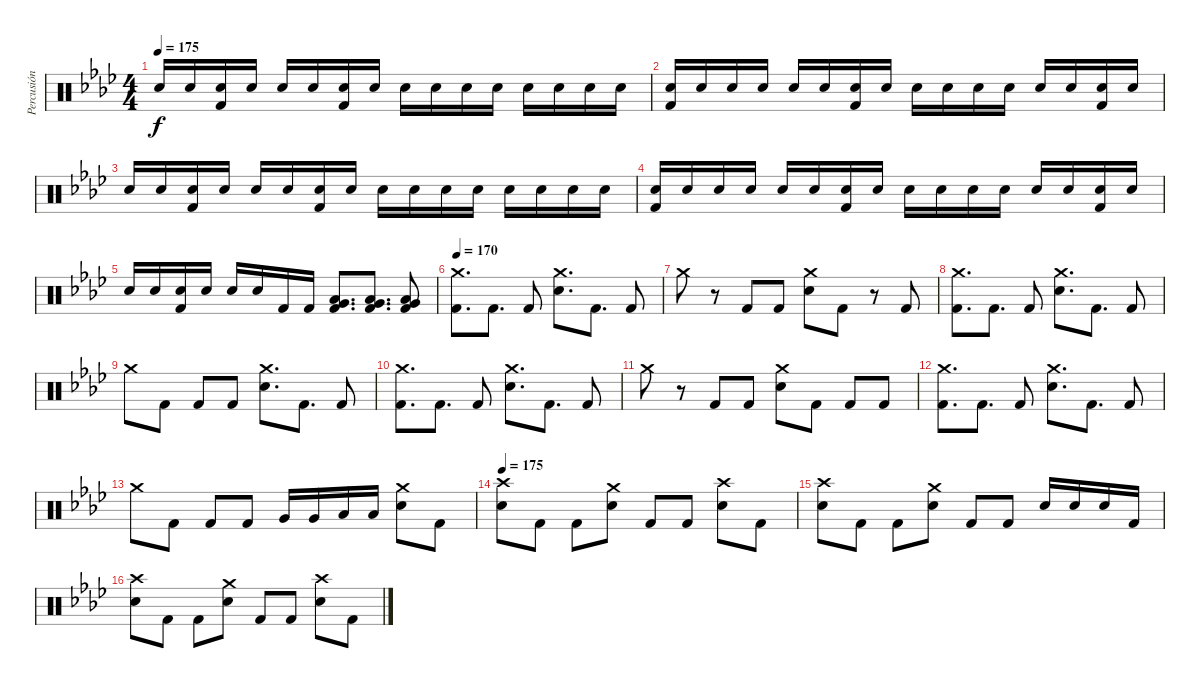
\track ("Percusión" "Percusión") {instrument percussion}
\staff {score}
\articulation defaults
\ts (4 4)
\tempo 175
\clef neutral
\ks fminor "Snare (hit) 2".16{dy f} "Snare (hit) 2".16
("Kick (hit) 2" "Snare (hit) 2").16 "Snare (hit) 2".16 "Snare (hit) 2".16 "Snare (hit) 2".16 ("Kick (hit) 2" "Snare (hit) 2").16 "Snare (hit) 2".16 "Snare (hit) 2".16{volume 11} "Snare (hit) 2".16{volume 6} "Snare (hit) 2".16 "Snare (hit) 2".16 "Snare (hit) 2".16{volume 11} "Snare (hit) 2".16 "Snare (hit) 2".16{volume 6} "Snare (hit) 2".16{volume 11} |
("Kick (hit) 2" "Snare (hit) 2").16{volume 6} "Snare (hit) 2".16 "Snare (hit) 2".16 "Snare (hit) 2".16 "Snare (hit) 2".16 "Snare (hit) 2".16 ("Kick (hit) 2" "Snare (hit) 2").16 "Snare (hit) 2".16 "Snare (hit) 2".16{volume 11} "Snare (hit) 2".16{volume 6} "Snare (hit) 2".16 "Snare (hit) 2".16 "Snare (hit) 2".16 "Snare (hit) 2".16 ("Kick (hit) 2" "Snare (hit) 2").16 "Snare (hit) 2".16 |
"Snare (hit) 2".16 "Snare (hit) 2".16 ("Kick (hit) 2" "Snare (hit) 2").16 "Snare (hit) 2".16 "Snare (hit) 2".16 "Snare (hit) 2".16 ("Kick (hit) 2" "Snare (hit) 2").16 "Snare (hit) 2".16 "Snare (hit) 2".16{volume 11} "Snare (hit) 2".16{volume 6} "Snare (hit) 2".16 "Snare (hit) 2".16{volume 11} "Snare (hit) 2".16{volume 6} "Snare (hit) 2".16 "Snare (hit) 2".16{volume 11} "Snare (hit) 2".16{volume 6} |
("Kick (hit) 2" "Snare (hit) 2").16{volume 6} "Snare (hit) 2".16 "Snare (hit) 2".16 "Snare (hit) 2".16 "Snare (hit) 2".16 "Snare (hit) 2".16 ("Kick (hit) 2" "Snare (hit) 2").16 "Snare (hit) 2".16 "Snare (hit) 2".16{volume 11} "Snare (hit) 2".16{volume 6} "Snare (hit) 2".16 "Snare (hit) 2".16 "Snare (hit) 2".16{volume 11} "Snare (hit) 2".16{volume 6} ("Kick (hit) 2" "Snare (hit) 2").16 "Snare (hit) 2".16 |
"Snare (hit) 2".16{volume 6} "Snare (hit) 2".16 ("Kick (hit) 2" "Snare (hit) 2").16 "Snare (hit) 2".16 "Snare (hit) 2".16 "Snare (hit) 2".16 "Kick (hit) 2".16{volume 11} "Kick (hit) 2".16 ("Kick (hit) 2" "Low Floor Tom (hit)" "Very Low Tom (hit)").8{d} ("Kick (hit) 2" "Low Floor Tom (hit)" "Very Low Tom (hit)").8{d} ("Kick (hit) 2" "Low Floor Tom (hit)" "Very Low Tom (hit)").8 |
\tempo 170
("Kick (hit) 2" "Crash medium (hit)").8{d volume 15} "Kick (hit) 2".8{d} "Kick (hit) 2".8 ("Snare (hit) 2" "Crash medium (hit)").8{d} "Kick (hit) 2".8{d} "Kick (hit) 2".8 |
"Crash medium (hit)".8 r.8 "Kick (hit) 2".8 "Kick (hit) 2".8 ("Snare (hit) 2" "Crash medium (hit)").8 "Kick (hit) 2".8 r.8 "Kick (hit) 2".8 |
("Kick (hit) 2" "Crash medium (hit)").8{d} "Kick (hit) 2".8{d} "Kick (hit) 2".8 ("Snare (hit) 2" "Crash medium (hit)").8{d} "Kick (hit) 2".8{d} "Kick (hit) 2".8 |
"Crash medium (hit)".8 "Kick (hit) 2".8 "Kick (hit) 2".8 "Kick (hit) 2".8 ("Snare (hit) 2" "Crash medium (hit)").8{d} "Kick (hit) 2".8{d} "Kick (hit) 2".8 |
("Kick (hit) 2" "Crash medium (hit)").8{d} "Kick (hit) 2".8{d} "Kick (hit) 2".8 ("Snare (hit) 2" "Crash medium (hit)").8{d} "Kick (hit) 2".8{d} "Kick (hit) 2".8 |
"Crash medium (hit)".8 r.8 "Kick (hit) 2".8 "Kick (hit) 2".8 ("Snare (hit) 2" "Crash medium (hit)").8 "Kick (hit) 2".8 "Kick (hit) 2".8 "Kick (hit) 2".8 |
("Kick (hit) 2" "Crash medium (hit)").8{d} "Kick (hit) 2".8{d} "Kick (hit) 2".8 ("Snare (hit) 2" "Crash medium (hit)").8{d} "Kick (hit) 2".8{d} "Kick (hit) 2".8 |
"Crash medium (hit)".8 "Kick (hit) 2".8 "Kick (hit) 2".8 "Kick (hit) 2".8 "Very Low Tom (hit)".16 "Very Low Tom (hit)".16 "Low Floor Tom (hit)".16 "Low Floor Tom (hit)".16 ("Snare (hit) 2" "Crash medium (hit)").8 "Kick (hit) 2".8 |
\tempo 175
("Snare (hit) 2" "Crash high (hit)").8 "Kick (hit) 2".8 "Kick (hit) 2".8 ("Snare (hit) 2" "Crash medium (hit)").8 "Kick (hit) 2".8 "Kick (hit) 2".8 ("Snare (hit) 2" "Crash high (hit)").8 "Kick (hit) 2".8 |
("Snare (hit) 2" "Crash high (hit)").8 "Kick (hit) 2".8 "Kick (hit) 2".8 ("Snare (hit) 2" "Crash medium (hit)").8 "Kick (hit) 2".8 "Kick (hit) 2".8 "Snare (hit) 2".16 "Snare (hit) 2".16 "Snare (hit) 2".16 "Kick (hit) 2".16 |
("Snare (hit) 2" "Crash high (hit)").8 "Kick (hit) 2".8 "Kick (hit) 2".8 ("Snare (hit) 2" "Crash medium (hit)").8 "Kick (hit) 2".8 "Kick (hit) 2".8 ("Snare (hit) 2" "Crash high (hit)").8 "Kick (hit) 2".8
